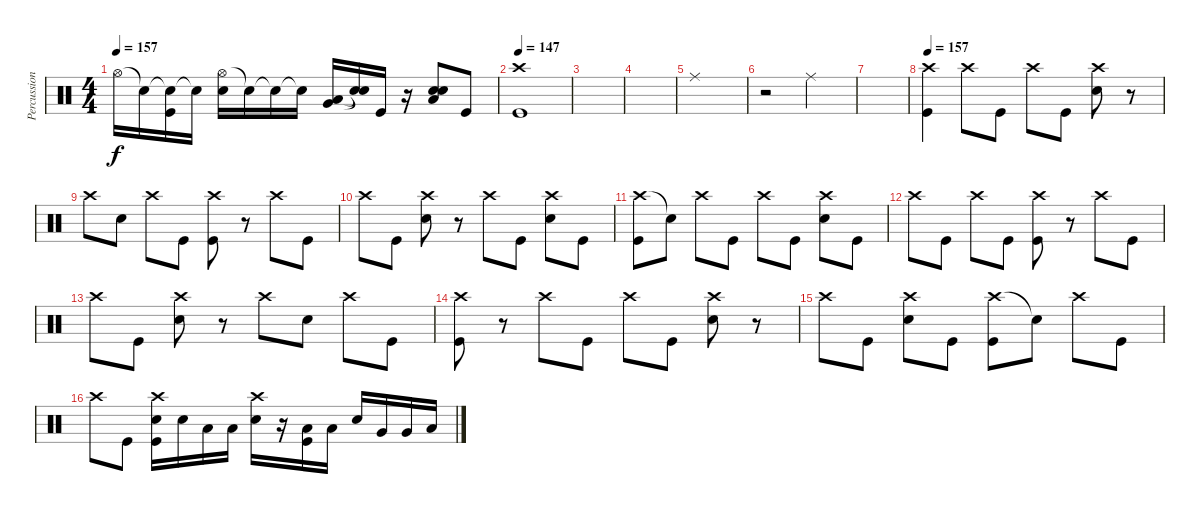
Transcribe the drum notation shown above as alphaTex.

\track ("Percussion" "Percussion") {instrument percussion}
\staff {score}
\articulation defaults
\ts (4 4)
\tempo 157
\clef neutral
\ks c "Hi-Hat (open)".16{dy f} "Snare (hit)"{t}.16
("Snare (hit)"{t} "Kick (hit)").16 "Snare (hit)"{t}.16 ("Hi-Hat (open)" "Electric Snare (hit)").16 "Snare (hit)"{t}.16 "Snare (hit)"{t}.16 "Snare (hit)"{t}.16 ("Low Floor Tom (hit)" "Very Low Tom (hit)").16 ("Snare (hit)"{t} "Snare (hit)"{t}).16 "Kick (hit)".16 r.16 ("Low Floor Tom (hit)" "Electric Snare (hit)" "Electric Snare (hit)").8 "Kick (hit)".8 |
\tempo 147
("Crash high (hit)" "Kick (hit)").1 |
|
|
"Ride (middle)".1 |
r.2 "Ride (middle)".2 |
|
\tempo 157
("Crash high (hit)" "Kick (hit)").4 "Crash high (hit)".8 "Kick (hit)".8 "Crash high (hit)".8 "Kick (hit)".8 ("Crash high (hit)" "Electric Snare (hit)").8 r.8 |
"Crash high (hit)".8 "Electric Snare (hit)".8 "Crash high (hit)".8 "Kick (hit)".8 ("Crash high (hit)" "Kick (hit)").8 r.8 "Crash high (hit)".8 "Kick (hit)".8 |
"Crash high (hit)".8 "Kick (hit)".8 ("Crash high (hit)" "Electric Snare (hit)").8 r.8 "Crash high (hit)".8 "Kick (hit)".8 ("Crash high (hit)" "Electric Snare (hit)").8 "Kick (hit)".8 |
("Crash high (hit)" "Kick (hit)").8 "Snare (hit)"{t}.8 "Crash high (hit)".8 "Kick (hit)".8 "Crash high (hit)".8 "Kick (hit)".8 ("Crash high (hit)" "Electric Snare (hit)").8 "Kick (hit)".8 |
"Crash high (hit)".8 "Kick (hit)".8 "Crash high (hit)".8 "Kick (hit)".8 ("Crash high (hit)" "Kick (hit)").8 r.8 "Crash high (hit)".8 "Kick (hit)".8 |
"Crash high (hit)".8 "Kick (hit)".8 ("Crash high (hit)" "Electric Snare (hit)").8 r.8 "Crash high (hit)".8 "Electric Snare (hit)".8 "Crash high (hit)".8 "Kick (hit)".8 |
("Crash high (hit)" "Kick (hit)").8 r.8 "Crash high (hit)".8 "Kick (hit)".8 "Crash high (hit)".8 "Kick (hit)".8 ("Crash high (hit)" "Electric Snare (hit)").8 r.8 |
"Crash high (hit)".8 "Kick (hit)".8 ("Crash high (hit)" "Electric Snare (hit)").8 "Kick (hit)".8 ("Crash high (hit)" "Kick (hit)").8 "Snare (hit)"{t}.8 "Crash high (hit)".8 "Kick (hit)".8 |
"Crash high (hit)".8 "Kick (hit)".8 ("Crash high (hit)" "Electric Snare (hit)" "Kick (hit)").16 "Electric Snare (hit)".16 "Low Tom (hit)".16 "Low Tom (hit)".16 ("Crash high (hit)" "Electric Snare (hit)").16 r.16 ("Low Tom (hit)" "Kick (hit)").16 "Low Tom (hit)".16 "Electric Snare (hit)".16 "Very Low Tom (hit)".16 "Very Low Tom (hit)".16 "Low Floor Tom (hit)".16
